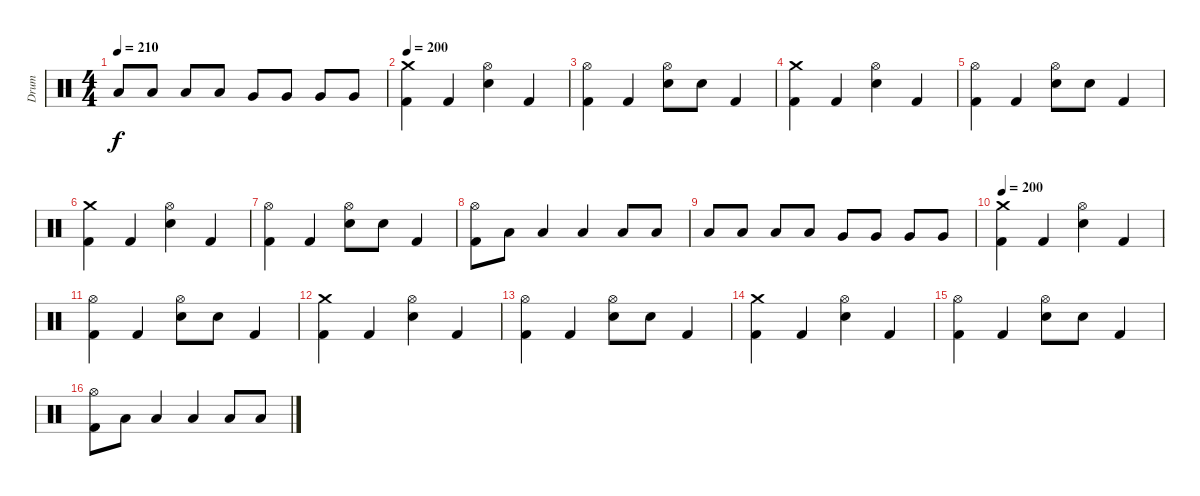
\track ("Drum" "Drum") {instrument percussion}
\staff {score}
\articulation defaults
\ts (4 4)
\tempo 210
\clef neutral
\ks c "Low Tom (hit)".8{dy f} "Low Tom (hit)".8 "Low Tom (hit)".8 "Low Tom (hit)".8 "Very Low Tom (hit)".8 "Very Low Tom (hit)".8 "Very Low Tom (hit)".8 "Very Low Tom (hit)".8
|
\tempo 200
("Crash medium (hit)" "Kick (hit) 2").4 "Kick (hit) 2".4 ("Electric Snare (hit)" "Hi-Hat (open)").4 "Kick (hit) 2".4 |
("Hi-Hat (open)" "Kick (hit) 2").4 "Kick (hit) 2".4 ("Electric Snare (hit)" "Hi-Hat (open)").8 "Electric Snare (hit)".8 "Kick (hit) 2".4 |
("Crash medium (hit)" "Kick (hit) 2").4 "Kick (hit) 2".4 ("Electric Snare (hit)" "Hi-Hat (open)").4 "Kick (hit) 2".4 |
("Hi-Hat (open)" "Kick (hit) 2").4 "Kick (hit) 2".4 ("Electric Snare (hit)" "Hi-Hat (open)").8 "Electric Snare (hit)".8 "Kick (hit) 2".4 |
("Crash medium (hit)" "Kick (hit) 2").4 "Kick (hit) 2".4 ("Electric Snare (hit)" "Hi-Hat (open)").4 "Kick (hit) 2".4 |
("Hi-Hat (open)" "Kick (hit) 2").4 "Kick (hit) 2".4 ("Electric Snare (hit)" "Hi-Hat (open)").8 "Electric Snare (hit)".8 "Kick (hit) 2".4 |
("Hi-Hat (open)" "Kick (hit) 2").8 "Low Tom (hit)".8 "Low Tom (hit)".4 "Low Tom (hit)".4 "Low Tom (hit)".8 "Low Tom (hit)".8 |
"Low Tom (hit)".8 "Low Tom (hit)".8 "Low Tom (hit)".8 "Low Tom (hit)".8 "Very Low Tom (hit)".8 "Very Low Tom (hit)".8 "Very Low Tom (hit)".8 "Very Low Tom (hit)".8 |
\tempo 200
("Crash medium (hit)" "Kick (hit) 2").4 "Kick (hit) 2".4 ("Electric Snare (hit)" "Hi-Hat (open)").4 "Kick (hit) 2".4 |
("Hi-Hat (open)" "Kick (hit) 2").4 "Kick (hit) 2".4 ("Electric Snare (hit)" "Hi-Hat (open)").8 "Electric Snare (hit)".8 "Kick (hit) 2".4 |
("Crash medium (hit)" "Kick (hit) 2").4 "Kick (hit) 2".4 ("Electric Snare (hit)" "Hi-Hat (open)").4 "Kick (hit) 2".4 |
("Hi-Hat (open)" "Kick (hit) 2").4 "Kick (hit) 2".4 ("Electric Snare (hit)" "Hi-Hat (open)").8 "Electric Snare (hit)".8 "Kick (hit) 2".4 |
("Crash medium (hit)" "Kick (hit) 2").4 "Kick (hit) 2".4 ("Electric Snare (hit)" "Hi-Hat (open)").4 "Kick (hit) 2".4 |
("Hi-Hat (open)" "Kick (hit) 2").4 "Kick (hit) 2".4 ("Electric Snare (hit)" "Hi-Hat (open)").8 "Electric Snare (hit)".8 "Kick (hit) 2".4 |
("Hi-Hat (open)" "Kick (hit) 2").8 "Low Tom (hit)".8 "Low Tom (hit)".4 "Low Tom (hit)".4 "Low Tom (hit)".8 "Low Tom (hit)".8
